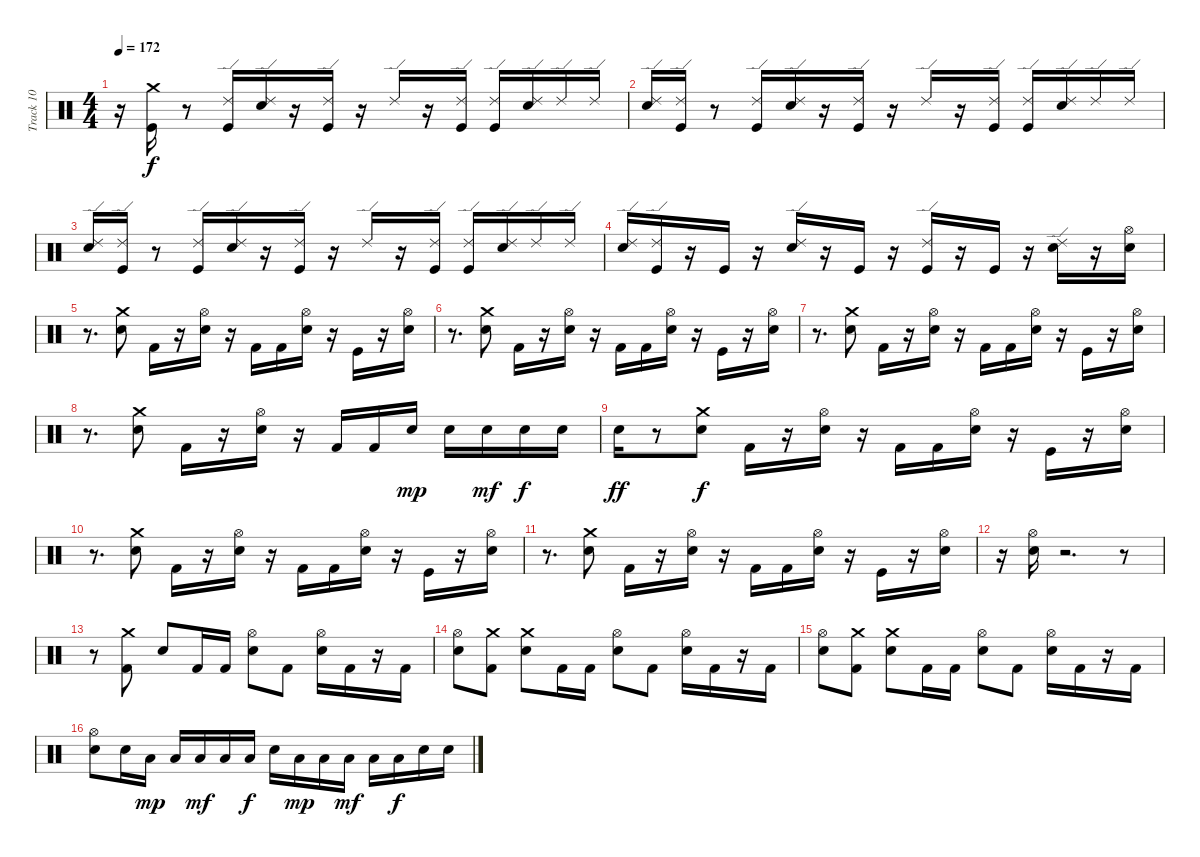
\track ("Track 10" "Track 10") {instrument percussion}
\staff {score}
\articulation defaults
\ts (4 4)
\tempo 172
\clef neutral
\ks c
r.16{dy f} ("Crash medium (hit)" "Kick (hit)").16 r.8 ("Kick (hit)" "Ride (edge) 2").16 ("Electric Snare (hit)" "Ride (edge) 2").16 r.16 ("Kick (hit)" "Ride (edge) 2").16 r.16 "Ride (edge) 2".16 r.16 ("Kick (hit)" "Ride (edge) 2").16 ("Kick (hit)" "Ride (edge) 2").16 ("Electric Snare (hit)" "Ride (edge) 2").16 "Ride (edge) 2".16 "Ride (edge) 2".16 |
("Electric Snare (hit)" "Ride (edge) 2").16 ("Ride (edge) 2" "Kick (hit)").16 r.8 ("Kick (hit)" "Ride (edge) 2").16 ("Electric Snare (hit)" "Ride (edge) 2").16 r.16 ("Kick (hit)" "Ride (edge) 2").16 r.16 "Ride (edge) 2".16 r.16 ("Kick (hit)" "Ride (edge) 2").16 ("Kick (hit)" "Ride (edge) 2").16 ("Electric Snare (hit)" "Ride (edge) 2").16 "Ride (edge) 2".16 "Ride (edge) 2".16 |
("Electric Snare (hit)" "Ride (edge) 2").16 ("Ride (edge) 2" "Kick (hit)").16 r.8 ("Kick (hit)" "Ride (edge) 2").16 ("Electric Snare (hit)" "Ride (edge) 2").16 r.16 ("Kick (hit)" "Ride (edge) 2").16 r.16 "Ride (edge) 2".16 r.16 ("Kick (hit)" "Ride (edge) 2").16 ("Kick (hit)" "Ride (edge) 2").16 ("Electric Snare (hit)" "Ride (edge) 2").16 "Ride (edge) 2".16 "Ride (edge) 2".16 |
("Electric Snare (hit)" "Ride (edge) 2").16 ("Ride (edge) 2" "Kick (hit)").16 r.16 "Kick (hit)".16 r.16 ("Ride (edge) 2" "Electric Snare (hit)").16 r.16 "Kick (hit)".16 r.16 ("Ride (edge) 2" "Kick (hit)").16 r.16 "Kick (hit)".16 r.16 ("Ride (edge) 2" "Electric Snare (hit)").16 r.16 ("Hi-Hat (open)" "Electric Snare (hit)").16 |
r.8{d} ("Crash medium (hit)" "Electric Snare (hit)").8 "Kick (hit) 2".16 r.16 ("Hi-Hat (open)" "Electric Snare (hit)").16 r.16 "Kick (hit) 2".16 "Kick (hit) 2".16 ("Hi-Hat (open)" "Electric Snare (hit)").16 r.16 "Kick (hit)".16 r.16 ("Hi-Hat (open)" "Electric Snare (hit)").16 |
r.8{d} ("Crash medium (hit)" "Electric Snare (hit)").8 "Kick (hit) 2".16 r.16 ("Hi-Hat (open)" "Electric Snare (hit)").16 r.16 "Kick (hit) 2".16 "Kick (hit) 2".16 ("Hi-Hat (open)" "Electric Snare (hit)").16 r.16 "Kick (hit)".16 r.16 ("Hi-Hat (open)" "Electric Snare (hit)").16 |
r.8{d} ("Crash medium (hit)" "Electric Snare (hit)").8 "Kick (hit) 2".16 r.16 ("Hi-Hat (open)" "Electric Snare (hit)").16 r.16 "Kick (hit) 2".16 "Kick (hit) 2".16 ("Hi-Hat (open)" "Electric Snare (hit)").16 r.16 "Kick (hit)".16 r.16 ("Hi-Hat (open)" "Electric Snare (hit)").16 |
r.8{d} ("Crash medium (hit)" "Electric Snare (hit)").8 "Kick (hit) 2".16 r.16 ("Hi-Hat (open)" "Electric Snare (hit)").16 r.16 "Kick (hit) 2".16 "Kick (hit) 2".16 "Electric Snare (hit)".16{dy mp} "Electric Snare (hit)".16 "Electric Snare (hit)".16{dy mf} "Electric Snare (hit)".16{dy f} "Electric Snare (hit)".16 |
"Electric Snare (hit)".16{dy ff} r.8 ("Crash medium (hit)" "Electric Snare (hit)").8{dy f} "Kick (hit) 2".16 r.16 ("Hi-Hat (open)" "Electric Snare (hit)").16 r.16 "Kick (hit) 2".16 "Kick (hit) 2".16 ("Hi-Hat (open)" "Electric Snare (hit)").16 r.16 "Kick (hit)".16 r.16 ("Hi-Hat (open)" "Electric Snare (hit)").16 |
r.8{d} ("Crash medium (hit)" "Electric Snare (hit)").8 "Kick (hit) 2".16 r.16 ("Hi-Hat (open)" "Electric Snare (hit)").16 r.16 "Kick (hit) 2".16 "Kick (hit) 2".16 ("Hi-Hat (open)" "Electric Snare (hit)").16 r.16 "Kick (hit)".16 r.16 ("Hi-Hat (open)" "Electric Snare (hit)").16 |
r.8{d} ("Crash medium (hit)" "Electric Snare (hit)").8 "Kick (hit) 2".16 r.16 ("Hi-Hat (open)" "Electric Snare (hit)").16 r.16 "Kick (hit) 2".16 "Kick (hit) 2".16 ("Hi-Hat (open)" "Electric Snare (hit)").16 r.16 "Kick (hit)".16 r.16 ("Hi-Hat (open)" "Electric Snare (hit)").16 |
r.16 ("Hi-Hat (open)" "Electric Snare (hit)").16 r.2{d} r.8 |
r.8 ("Crash medium (hit)" "Kick (hit) 2").8 "Electric Snare (hit)".8 "Kick (hit) 2".16 "Kick (hit) 2".16 ("Hi-Hat (open)" "Electric Snare (hit)").8 "Kick (hit) 2".8 ("Hi-Hat (open)" "Electric Snare (hit)").16 "Kick (hit) 2".16 r.16 "Kick (hit) 2".16 |
("Hi-Hat (open)" "Electric Snare (hit)").8 ("Crash medium (hit)" "Kick (hit) 2").8 ("Crash medium (hit)" "Electric Snare (hit)").8 "Kick (hit) 2".16 "Kick (hit) 2".16 ("Hi-Hat (open)" "Electric Snare (hit)").8 "Kick (hit) 2".8 ("Hi-Hat (open)" "Electric Snare (hit)").16 "Kick (hit) 2".16 r.16 "Kick (hit) 2".16 |
("Hi-Hat (open)" "Electric Snare (hit)").8 ("Crash medium (hit)" "Kick (hit) 2").8 ("Crash medium (hit)" "Electric Snare (hit)").8 "Kick (hit) 2".16 "Kick (hit) 2".16 ("Hi-Hat (open)" "Electric Snare (hit)").8 "Kick (hit) 2".8 ("Hi-Hat (open)" "Electric Snare (hit)").16 "Kick (hit) 2".16 r.16 "Kick (hit) 2".16 |
("Hi-Hat (open)" "Electric Snare (hit)").8 "Electric Snare (hit)".16 "Low Tom (hit)".16{dy mp} "Low Tom (hit)".16 "Low Tom (hit)".16{dy mf} "Low Tom (hit)".16 "Low Tom (hit)".16{dy f} "Electric Snare (hit)".16 "Low Tom (hit)".16{dy mp} "Low Tom (hit)".16 "Low Tom (hit)".16{dy mf} "Low Tom (hit)".16 "Low Tom (hit)".16{dy f} "Electric Snare (hit)".16 "Electric Snare (hit)".16
